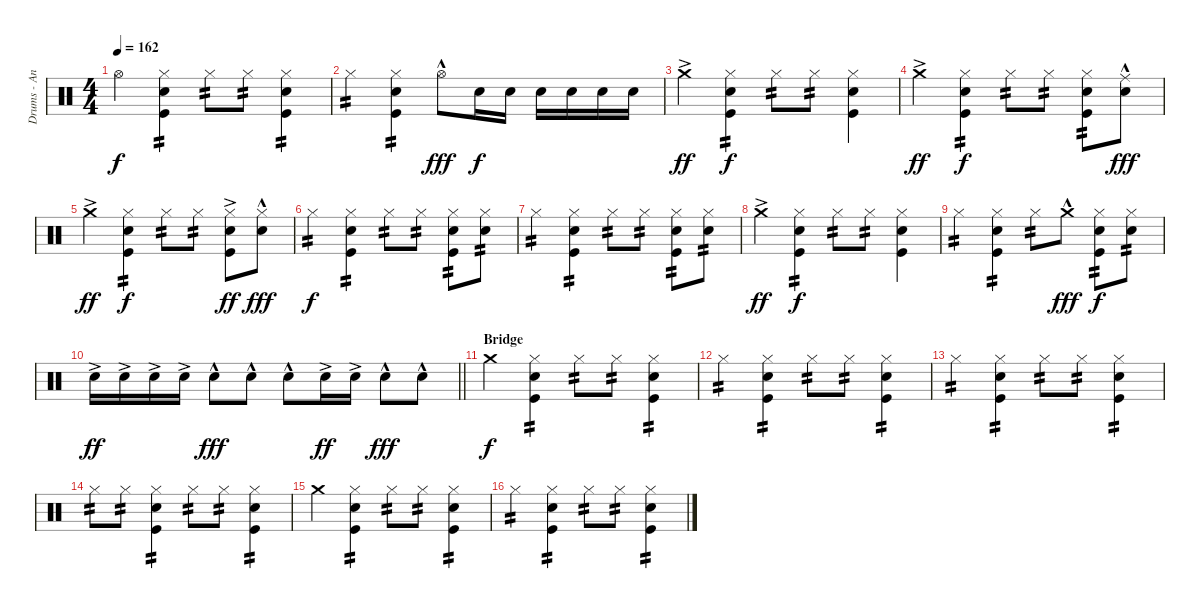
\track ("Drums - Andriushkin" "Drums - An") {instrument percussion}
\staff {score}
\articulation defaults
\ts (4 4)
\tempo 162
\clef neutral
\ks c "Hi-Hat (open)".4{dy f}
("Hi-Hat (closed)" "Electric Snare (hit)" "Kick (hit)").4{tp 2} "Hi-Hat (closed)".8{tp 2} "Hi-Hat (closed)".8{tp 2} ("Hi-Hat (closed)" "Electric Snare (hit)" "Kick (hit)").4{tp 2} |
"Hi-Hat (closed)".4{tp 2} ("Hi-Hat (closed)" "Electric Snare (hit)" "Kick (hit)").4{tp 2} "Hi-Hat (open)"{hac}.8{dy fff} "Electric Snare (hit)".16{dy f} "Electric Snare (hit)".16 "Electric Snare (hit)".16 "Electric Snare (hit)".16 "Electric Snare (hit)".16 "Electric Snare (hit)".16 |
"Crash medium (hit)"{ac}.4{dy ff} ("Hi-Hat (closed)" "Electric Snare (hit)" "Kick (hit)").4{tp 2 dy f} "Hi-Hat (closed)".8{tp 2} "Hi-Hat (closed)".8{tp 2} ("Hi-Hat (closed)" "Electric Snare (hit)" "Kick (hit)").4 |
"Crash medium (hit)"{ac}.4{dy ff} ("Hi-Hat (closed)" "Electric Snare (hit)" "Kick (hit)").4{tp 2 dy f} "Hi-Hat (closed)".8{tp 2} "Hi-Hat (closed)".8{tp 2} ("Hi-Hat (closed)" "Electric Snare (hit)" "Kick (hit)").8{tp 2} ("Ride (middle)"{hac} "Electric Snare (hit)").8{dy fff} |
"Crash medium (hit)"{ac}.4{dy ff} ("Hi-Hat (closed)" "Electric Snare (hit)" "Kick (hit)").4{tp 2 dy f} "Hi-Hat (closed)".8{tp 2} "Hi-Hat (closed)".8{tp 2} ("Hi-Hat (closed)" "Electric Snare (hit)"{ac} "Kick (hit)").8{dy ff} ("Hi-Hat (closed)" "Electric Snare (hit)"{hac}).8{dy fff} |
"Hi-Hat (closed)".4{tp 2 dy f} ("Hi-Hat (closed)" "Electric Snare (hit)" "Kick (hit)").4{tp 2} "Hi-Hat (closed)".8{tp 2} "Hi-Hat (closed)".8{tp 2} ("Hi-Hat (closed)" "Electric Snare (hit)" "Kick (hit)").8{tp 2} ("Hi-Hat (closed)" "Electric Snare (hit)").8{tp 2} |
"Hi-Hat (closed)".4{tp 2} ("Hi-Hat (closed)" "Electric Snare (hit)" "Kick (hit)").4{tp 2} "Hi-Hat (closed)".8{tp 2} "Hi-Hat (closed)".8{tp 2} ("Hi-Hat (closed)" "Electric Snare (hit)" "Kick (hit)").8{tp 2} ("Hi-Hat (closed)" "Electric Snare (hit)").8{tp 2} |
"Crash medium (hit)"{ac}.4{dy ff} ("Hi-Hat (closed)" "Electric Snare (hit)" "Kick (hit)").4{tp 2 dy f} "Hi-Hat (closed)".8{tp 2} "Hi-Hat (closed)".8{tp 2} ("Hi-Hat (closed)" "Electric Snare (hit)" "Kick (hit)").4 |
"Hi-Hat (closed)".4{tp 2} ("Hi-Hat (closed)" "Electric Snare (hit)" "Kick (hit)").4{tp 2} "Hi-Hat (closed)".8{tp 2} "Crash medium (hit)"{hac}.8{dy fff} ("Hi-Hat (closed)" "Electric Snare (hit)" "Kick (hit)").8{tp 2 dy f} ("Hi-Hat (closed)" "Electric Snare (hit)").8{tp 2} |
\barLineRight lightlight "Electric Snare (hit)"{ac}.16{dy ff} "Electric Snare (hit)"{ac}.16 "Electric Snare (hit)"{ac}.16 "Electric Snare (hit)"{ac}.16 "Electric Snare (hit)"{hac}.8{dy fff} "Electric Snare (hit)"{hac}.8 "Electric Snare (hit)"{hac}.8 "Electric Snare (hit)"{ac}.16{dy ff} "Electric Snare (hit)"{ac}.16 "Electric Snare (hit)"{hac}.8{dy fff} "Electric Snare (hit)"{hac}.8
|
\section ("" "Bridge")
"Crash medium (hit)".4{dy f} ("Hi-Hat (closed)" "Electric Snare (hit)" "Kick (hit)").4{tp 2} "Hi-Hat (closed)".8{tp 2} "Hi-Hat (closed)".8{tp 2} ("Hi-Hat (closed)" "Electric Snare (hit)" "Kick (hit)").4{tp 2} |
"Hi-Hat (closed)".4{tp 2} ("Hi-Hat (closed)" "Electric Snare (hit)" "Kick (hit)").4{tp 2} "Hi-Hat (closed)".8{tp 2} "Hi-Hat (closed)".8{tp 2} ("Hi-Hat (closed)" "Electric Snare (hit)" "Kick (hit)").4{tp 2} |
"Hi-Hat (closed)".4{tp 2} ("Hi-Hat (closed)" "Electric Snare (hit)" "Kick (hit)").4{tp 2} "Hi-Hat (closed)".8{tp 2} "Hi-Hat (closed)".8{tp 2} ("Hi-Hat (closed)" "Electric Snare (hit)" "Kick (hit)").4{tp 2} |
"Hi-Hat (closed)".8{tp 2} "Hi-Hat (closed)".8{tp 2} ("Hi-Hat (closed)" "Electric Snare (hit)" "Kick (hit)").4{tp 2} "Hi-Hat (closed)".8{tp 2} "Hi-Hat (closed)".8{tp 2} ("Hi-Hat (closed)" "Electric Snare (hit)" "Kick (hit)").4{tp 2} |
"Crash medium (hit)".4 ("Hi-Hat (closed)" "Electric Snare (hit)" "Kick (hit)").4{tp 2} "Hi-Hat (closed)".8{tp 2} "Hi-Hat (closed)".8{tp 2} ("Hi-Hat (closed)" "Electric Snare (hit)" "Kick (hit)").4{tp 2} |
"Hi-Hat (closed)".4{tp 2} ("Hi-Hat (closed)" "Electric Snare (hit)" "Kick (hit)").4{tp 2} "Hi-Hat (closed)".8{tp 2} "Hi-Hat (closed)".8{tp 2} ("Hi-Hat (closed)" "Electric Snare (hit)" "Kick (hit)").4{tp 2}
